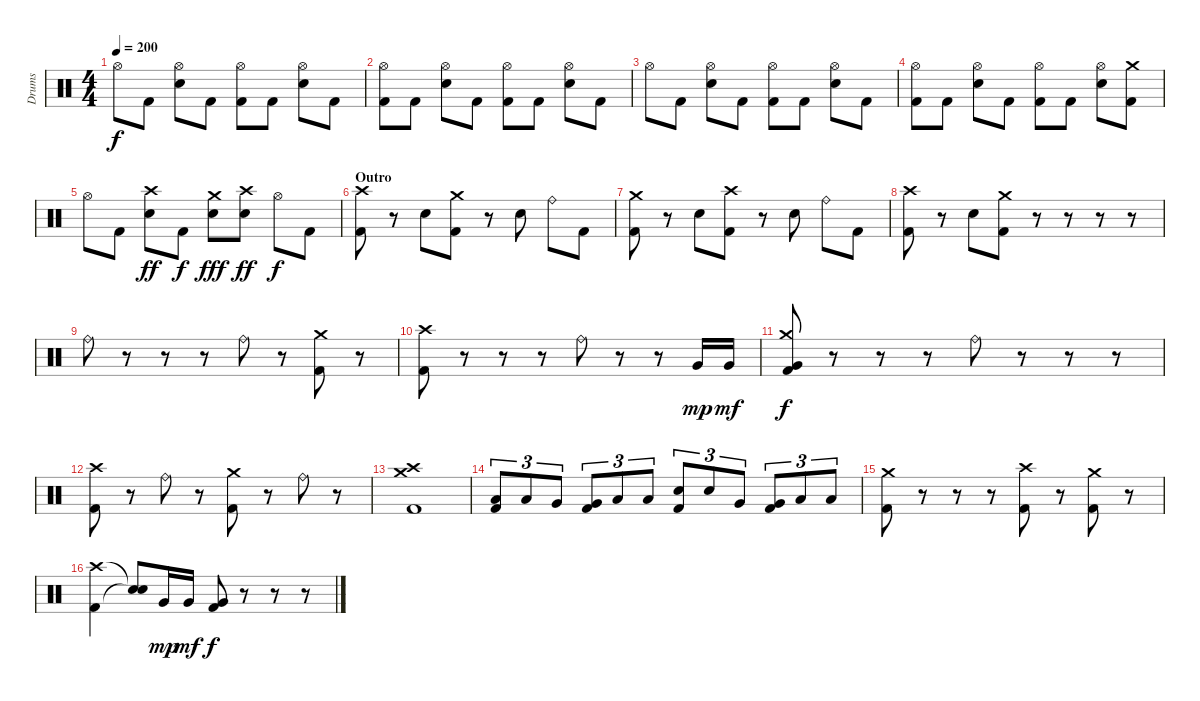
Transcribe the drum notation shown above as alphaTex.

\track ("Drums" "Drums") {instrument percussion}
\staff {score}
\articulation defaults
\ts (4 4)
\tempo 200
\clef neutral
\ks c "Hi-Hat (open)".8{dy f} "Kick (hit) 2".8
("Electric Snare (hit)" "Hi-Hat (open)").8 "Kick (hit) 2".8 ("Kick (hit) 2" "Hi-Hat (open)").8 "Kick (hit) 2".8 ("Electric Snare (hit)" "Hi-Hat (open)").8 "Kick (hit) 2".8 |
("Kick (hit) 2" "Hi-Hat (open)").8 "Kick (hit) 2".8 ("Electric Snare (hit)" "Hi-Hat (open)").8 "Kick (hit) 2".8 ("Kick (hit) 2" "Hi-Hat (open)").8 "Kick (hit) 2".8 ("Electric Snare (hit)" "Hi-Hat (open)").8 "Kick (hit) 2".8 |
"Hi-Hat (open)".8 "Kick (hit) 2".8 ("Electric Snare (hit)" "Hi-Hat (open)").8 "Kick (hit) 2".8 ("Kick (hit) 2" "Hi-Hat (open)").8 "Kick (hit) 2".8 ("Electric Snare (hit)" "Hi-Hat (open)").8 "Kick (hit) 2".8 |
("Kick (hit) 2" "Hi-Hat (open)").8 "Kick (hit) 2".8 ("Electric Snare (hit)" "Hi-Hat (open)").8 "Kick (hit) 2".8 ("Kick (hit) 2" "Hi-Hat (open)").8 "Kick (hit) 2".8 ("Electric Snare (hit)" "Hi-Hat (open)").8 ("Kick (hit) 2" "Crash medium (hit)").8 |
"Hi-Hat (open)".8 "Kick (hit) 2".8 ("Electric Snare (hit)" "Crash high (hit)").8{dy ff} "Kick (hit) 2".8{dy f} ("Electric Snare (hit)" "Crash medium (hit)").8{dy fff} ("Electric Snare (hit)" "Crash high (hit)").8{dy ff} "Hi-Hat (open)".8{dy f} "Kick (hit) 2".8 |
\section ("" "Outro")
("Kick (hit) 2" "Crash high (hit)").8 r.8 "Electric Snare (hit)".8 ("Kick (hit) 2" "Crash medium (hit)").8 r.8 "Electric Snare (hit)".8 "Ride (bell)".8 "Kick (hit) 2".8 |
("Kick (hit) 2" "Crash medium (hit)").8 r.8 "Electric Snare (hit)".8 ("Kick (hit) 2" "Crash high (hit)").8 r.8 "Electric Snare (hit)".8 "Ride (bell)".8 "Kick (hit) 2".8 |
("Kick (hit) 2" "Crash high (hit)").8 r.8 "Electric Snare (hit)".8 ("Kick (hit) 2" "Crash medium (hit)").8 r.8 r.8 r.8 r.8 |
"Ride (bell)".8 r.8 r.8 r.8 "Ride (bell)".8 r.8 ("Kick (hit) 2" "Crash medium (hit)").8 r.8 |
("Kick (hit) 2" "Crash high (hit)").8 r.8 r.8 r.8 "Ride (bell)".8 r.8 r.8 "Very Low Tom (hit)".16{dy mp} "Very Low Tom (hit)".16{dy mf} |
("Kick (hit) 2" "Very Low Tom (hit)" "Crash medium (hit)").8{dy f} r.8 r.8 r.8 "Ride (bell)".8 r.8 r.8 r.8 |
("Kick (hit) 2" "Crash high (hit)").8 r.8 "Ride (bell)".8 r.8 ("Kick (hit) 2" "Crash medium (hit)").8 r.8 "Ride (bell)".8 r.8 |
("Kick (hit) 2" "Crash high (hit)" "Crash medium (hit)").1 |
("Kick (hit) 2" "Low Tom (hit)").8{tu (3 2)} "Low Tom (hit)".8{tu (3 2)} "Very Low Tom (hit)".8{tu (3 2)} ("Kick (hit) 2" "Very Low Tom (hit)").8{tu (3 2)} "Low Floor Tom (hit)".8{tu (3 2)} "Low Floor Tom (hit)".8{tu (3 2)} ("Kick (hit) 2" "Electric Snare (hit)").8{tu (3 2)} "Electric Snare (hit)".8{tu (3 2)} "Very Low Tom (hit)".8{tu (3 2)} ("Kick (hit) 2" "Very Low Tom (hit)").8{tu (3 2)} "Low Tom (hit)".8{tu (3 2)} "Low Tom (hit)".8{tu (3 2)} |
("Kick (hit) 2" "Crash medium (hit)").8 r.8 r.8 r.8 ("Kick (hit) 2" "Crash high (hit)").8 r.8 ("Kick (hit) 2" "Crash medium (hit)").8 r.8 |
("Kick (hit) 2" "Crash high (hit)").4 ("Snare (hit)"{t} "Snare (hit)"{t}).8 "Very Low Tom (hit)".16{dy mp} "Very Low Tom (hit)".16{dy mf} ("Kick (hit) 2" "Very Low Tom (hit)").8{dy f} r.8 r.8 r.8
